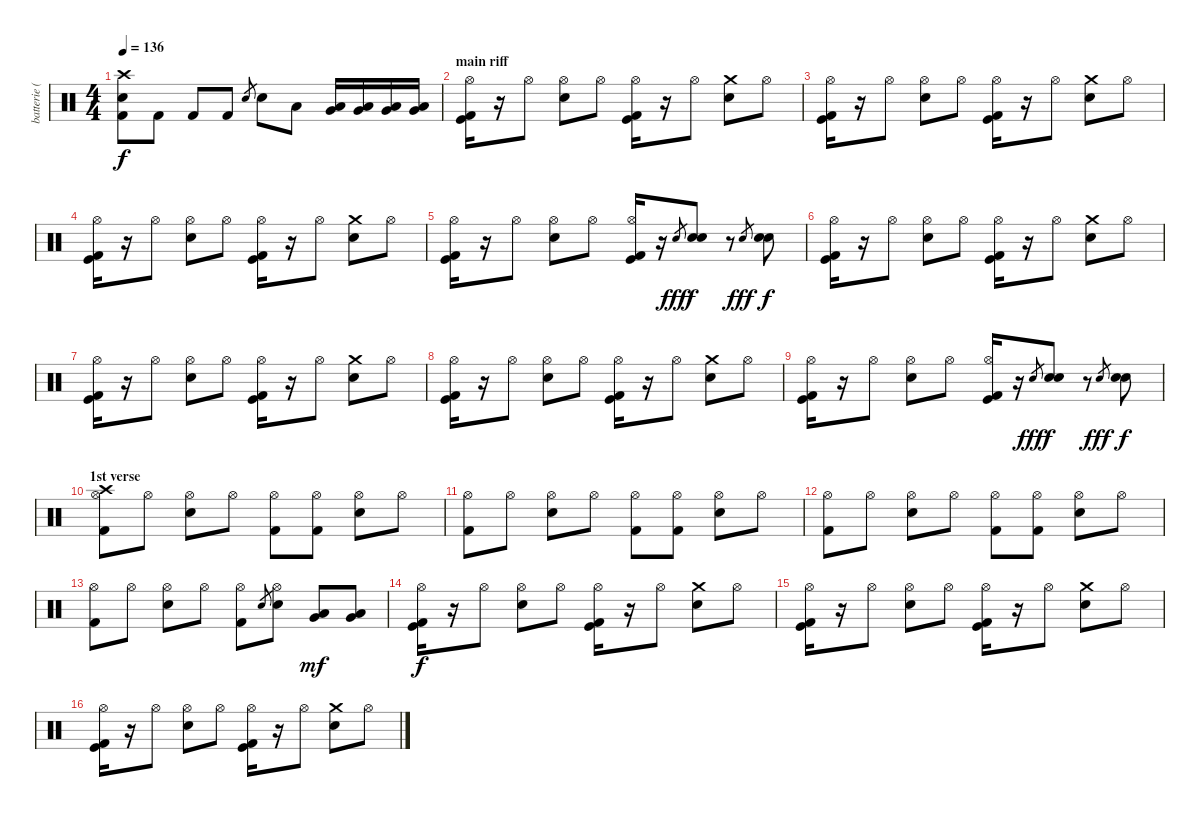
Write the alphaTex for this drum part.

\track ("batterie (J.Castillo)" "batterie (") {instrument percussion}
\staff {score}
\articulation defaults
\ts (4 4)
\tempo 136
\clef neutral
\ks c
("Electric Snare (hit)" "Kick (hit) 2" "Crash high (hit)").8{dy f} "Kick (hit) 2".8 "Kick (hit) 2".8 "Kick (hit) 2".8 "Electric Snare (hit)".8{gr} "Electric Snare (hit)".8 "Low Tom (hit)".8 ("Very Low Tom (hit)" "Low Tom (hit)").16 ("Very Low Tom (hit)" "Low Tom (hit)").16 ("Very Low Tom (hit)" "Low Tom (hit)").16 ("Very Low Tom (hit)" "Low Tom (hit)").16 |
\section ("" "main riff")
("Hi-Hat (open)" "Kick (hit) 2" "Kick (hit)").16 r.16 "Hi-Hat (open)".8 ("Hi-Hat (open)" "Electric Snare (hit)").8 "Hi-Hat (open)".8 ("Hi-Hat (open)" "Kick (hit) 2" "Kick (hit)").16 r.16 "Hi-Hat (open)".8 ("Crash medium (hit)" "Electric Snare (hit)").8 "Hi-Hat (open)".8 |
("Hi-Hat (open)" "Kick (hit) 2" "Kick (hit)").16 r.16 "Hi-Hat (open)".8 ("Hi-Hat (open)" "Electric Snare (hit)").8 "Hi-Hat (open)".8 ("Hi-Hat (open)" "Kick (hit) 2" "Kick (hit)").16 r.16 "Hi-Hat (open)".8 ("Crash medium (hit)" "Electric Snare (hit)").8 "Hi-Hat (open)".8 |
("Hi-Hat (open)" "Kick (hit) 2" "Kick (hit)").16 r.16 "Hi-Hat (open)".8 ("Hi-Hat (open)" "Electric Snare (hit)").8 "Hi-Hat (open)".8 ("Hi-Hat (open)" "Kick (hit) 2" "Kick (hit)").16 r.16 "Hi-Hat (open)".8 ("Crash medium (hit)" "Electric Snare (hit)").8 "Hi-Hat (open)".8 |
("Hi-Hat (open)" "Kick (hit) 2" "Kick (hit)").16 r.16 "Hi-Hat (open)".8 ("Hi-Hat (open)" "Electric Snare (hit)").8 "Hi-Hat (open)".8 ("Hi-Hat (open)" "Kick (hit) 2" "Kick (hit)").16 r.16 "Electric Snare (hit)"{h}.8{gr dy fff} ("Electric Snare (hit)" "Electric Snare (hit)").8{dy f} r.8 "Electric Snare (hit)".8{gr dy fff} ("Electric Snare (hit)" "Electric Snare (hit)").8{dy f} |
("Hi-Hat (open)" "Kick (hit) 2" "Kick (hit)").16 r.16 "Hi-Hat (open)".8 ("Hi-Hat (open)" "Electric Snare (hit)").8 "Hi-Hat (open)".8 ("Hi-Hat (open)" "Kick (hit) 2" "Kick (hit)").16 r.16 "Hi-Hat (open)".8 ("Crash medium (hit)" "Electric Snare (hit)").8 "Hi-Hat (open)".8 |
("Hi-Hat (open)" "Kick (hit) 2" "Kick (hit)").16 r.16 "Hi-Hat (open)".8 ("Hi-Hat (open)" "Electric Snare (hit)").8 "Hi-Hat (open)".8 ("Hi-Hat (open)" "Kick (hit) 2" "Kick (hit)").16 r.16 "Hi-Hat (open)".8 ("Crash medium (hit)" "Electric Snare (hit)").8 "Hi-Hat (open)".8 |
("Hi-Hat (open)" "Kick (hit) 2" "Kick (hit)").16 r.16 "Hi-Hat (open)".8 ("Hi-Hat (open)" "Electric Snare (hit)").8 "Hi-Hat (open)".8 ("Hi-Hat (open)" "Kick (hit) 2" "Kick (hit)").16 r.16 "Hi-Hat (open)".8 ("Crash medium (hit)" "Electric Snare (hit)").8 "Hi-Hat (open)".8 |
("Hi-Hat (open)" "Kick (hit) 2" "Kick (hit)").16 r.16 "Hi-Hat (open)".8 ("Hi-Hat (open)" "Electric Snare (hit)").8 "Hi-Hat (open)".8 ("Hi-Hat (open)" "Kick (hit) 2" "Kick (hit)").16 r.16 "Electric Snare (hit)"{h}.8{gr dy fff} ("Electric Snare (hit)" "Electric Snare (hit)").8{dy f} r.8 "Electric Snare (hit)".8{gr dy fff} ("Electric Snare (hit)" "Electric Snare (hit)").8{dy f} |
\section ("" "1st verse")
("Kick (hit) 2" "Crash high (hit)" "Hi-Hat (open)").8 "Hi-Hat (open)".8 ("Electric Snare (hit)" "Hi-Hat (open)").8 "Hi-Hat (open)".8 ("Kick (hit) 2" "Hi-Hat (open)").8 ("Kick (hit) 2" "Hi-Hat (open)").8 ("Electric Snare (hit)" "Hi-Hat (open)").8 "Hi-Hat (open)".8 |
("Kick (hit) 2" "Hi-Hat (open)").8 "Hi-Hat (open)".8 ("Electric Snare (hit)" "Hi-Hat (open)").8 "Hi-Hat (open)".8 ("Kick (hit) 2" "Hi-Hat (open)").8 ("Kick (hit) 2" "Hi-Hat (open)").8 ("Electric Snare (hit)" "Hi-Hat (open)").8 "Hi-Hat (open)".8 |
("Kick (hit) 2" "Hi-Hat (open)").8 "Hi-Hat (open)".8 ("Electric Snare (hit)" "Hi-Hat (open)").8 "Hi-Hat (open)".8 ("Kick (hit) 2" "Hi-Hat (open)").8 ("Kick (hit) 2" "Hi-Hat (open)").8 ("Electric Snare (hit)" "Hi-Hat (open)").8 "Hi-Hat (open)".8 |
("Kick (hit) 2" "Hi-Hat (open)").8 "Hi-Hat (open)".8 ("Electric Snare (hit)" "Hi-Hat (open)").8 "Hi-Hat (open)".8 ("Kick (hit) 2" "Hi-Hat (open)").8 "Electric Snare (hit)".8{gr} ("Electric Snare (hit)" "Hi-Hat (open)").8 ("Low Tom (hit)" "Very Low Tom (hit)").8{dy mf} ("Low Tom (hit)" "Very Low Tom (hit)").8 |
("Hi-Hat (open)" "Kick (hit) 2" "Kick (hit)").16{dy f} r.16 "Hi-Hat (open)".8 ("Hi-Hat (open)" "Electric Snare (hit)").8 "Hi-Hat (open)".8 ("Hi-Hat (open)" "Kick (hit) 2" "Kick (hit)").16 r.16 "Hi-Hat (open)".8 ("Crash medium (hit)" "Electric Snare (hit)").8 "Hi-Hat (open)".8 |
("Hi-Hat (open)" "Kick (hit) 2" "Kick (hit)").16 r.16 "Hi-Hat (open)".8 ("Hi-Hat (open)" "Electric Snare (hit)").8 "Hi-Hat (open)".8 ("Hi-Hat (open)" "Kick (hit) 2" "Kick (hit)").16 r.16 "Hi-Hat (open)".8 ("Crash medium (hit)" "Electric Snare (hit)").8 "Hi-Hat (open)".8 |
("Hi-Hat (open)" "Kick (hit) 2" "Kick (hit)").16 r.16 "Hi-Hat (open)".8 ("Hi-Hat (open)" "Electric Snare (hit)").8 "Hi-Hat (open)".8 ("Hi-Hat (open)" "Kick (hit) 2" "Kick (hit)").16 r.16 "Hi-Hat (open)".8 ("Crash medium (hit)" "Electric Snare (hit)").8 "Hi-Hat (open)".8
